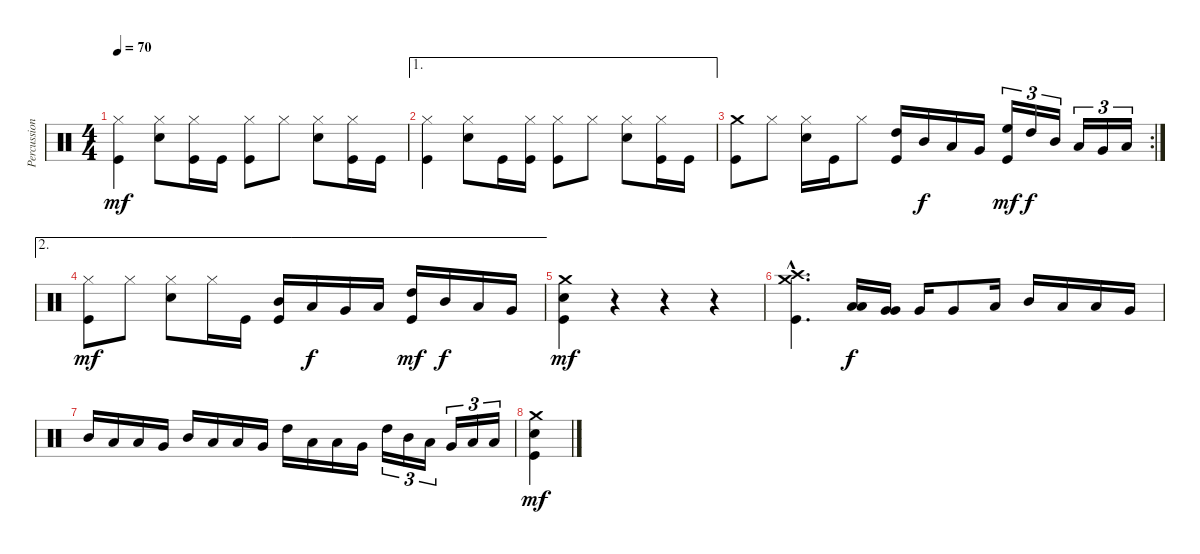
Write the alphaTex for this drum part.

\track ("Percussion" "Percussion") {instrument percussion}
\staff {score}
\articulation defaults
\ts (4 4)
\tempo 70
\clef neutral
\ks c
("Hi-Hat (closed)" "Kick (hit)").4{dy mf} ("Hi-Hat (closed)" "Snare (hit) 2").8 ("Hi-Hat (closed)" "Kick (hit)").16 "Kick (hit)".16 ("Hi-Hat (closed)" "Kick (hit)").8 "Hi-Hat (closed)".8 ("Hi-Hat (closed)" "Snare (hit) 2").8 ("Hi-Hat (closed)" "Kick (hit)").16 "Kick (hit)".16 |
\ae 1
("Hi-Hat (closed)" "Kick (hit)").4 ("Hi-Hat (closed)" "Snare (hit) 2").8 "Kick (hit)".16 ("Hi-Hat (closed)" "Kick (hit)").16 ("Hi-Hat (closed)" "Kick (hit)").8 "Hi-Hat (closed)".8 ("Hi-Hat (closed)" "Snare (hit) 2").8 ("Hi-Hat (closed)" "Kick (hit)").16 "Kick (hit)".16 |
\rc 2
("Crash medium (hit)" "Kick (hit)").8 "Hi-Hat (closed)".8 ("Hi-Hat (closed)" "Snare (hit) 2").16 "Kick (hit)".16 "Hi-Hat (closed)".8 ("High Tom (hit)" "Kick (hit)").16 "Mid Tom (hit)".16{dy f} "Low Tom (hit)".16 "Very Low Tom (hit)".16 ("High Floor Tom (hit)" "Kick (hit)").16{tu (3 2) dy mf} "High Tom (hit)".16{tu (3 2) dy f} "Mid Tom (hit)".16{tu (3 2)} "Low Tom (hit)".16{tu (3 2)} "Very Low Tom (hit)".16{tu (3 2)} "Low Floor Tom (hit)".16{tu (3 2)} |
\ae 2
("Hi-Hat (closed)" "Kick (hit)").8{dy mf} "Hi-Hat (closed)".8 ("Hi-Hat (closed)" "Snare (hit) 2").8 "Hi-Hat (closed)".16 "Kick (hit)".16 ("Mid Tom (hit)" "Kick (hit)").16 "Low Tom (hit)".16{dy f} "Very Low Tom (hit)".16 "Low Floor Tom (hit)".16 ("High Tom (hit)" "Kick (hit)").16{dy mf} "Mid Tom (hit)".16{dy f} "Low Tom (hit)".16 "Very Low Tom (hit)".16 |
("Crash medium (hit)" "Snare (hit) 2" "Kick (hit)").4{dy mf} r.4 r.4 r.4 |
("Crash medium (hit)"{hac} "Crash high (hit)"{hac} "Kick (hit)"{hac}).4{d} ("Low Tom (hit)" "Low Tom (hit)").16{dy f} ("Very Low Tom (hit)" "Very Low Tom (hit)").16 "Very Low Tom (hit)".16 "Very Low Tom (hit)".8 "Low Floor Tom (hit)".16 "Mid Tom (hit)".16 "Low Tom (hit)".16 "Low Tom (hit)".16 "Very Low Tom (hit)".16 |
"Mid Tom (hit)".16 "Low Tom (hit)".16 "Low Tom (hit)".16 "Very Low Tom (hit)".16 "Mid Tom (hit)".16 "Low Tom (hit)".16 "Low Tom (hit)".16 "Very Low Tom (hit)".16 "High Tom (hit)".16 "Low Tom (hit)".16 "Low Tom (hit)".16 "Very Low Tom (hit)".16 "High Tom (hit)".16{tu (3 2)} "Mid Tom (hit)".16{tu (3 2)} "Low Tom (hit)".16{tu (3 2)} "Very Low Tom (hit)".16{tu (3 2)} "Low Floor Tom (hit)".16{tu (3 2)} "Low Floor Tom (hit)".16{tu (3 2)} |
("Crash medium (hit)" "Snare (hit) 2" "Kick (hit)").4{dy mf}
